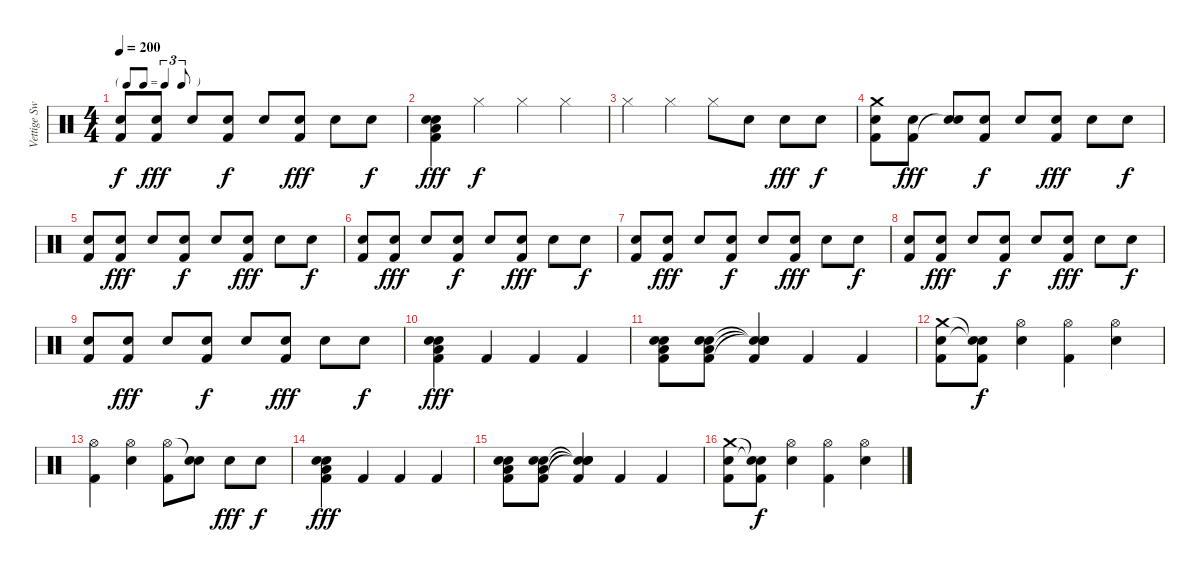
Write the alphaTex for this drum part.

\track ("Vettige Swa" "Vettige Sw") {instrument percussion}
\staff {score}
\articulation defaults
\ts (4 4)
\tf triplet8th
\tempo 200
\clef neutral
\ks c
("Electric Snare (hit)" "Kick (hit) 2").8{dy f} ("Electric Snare (hit)" "Kick (hit) 2").8{dy fff} "Electric Snare (hit)".8 ("Electric Snare (hit)" "Kick (hit) 2").8{dy f} "Electric Snare (hit)".8 ("Electric Snare (hit)" "Kick (hit) 2").8{dy fff} "Electric Snare (hit)".8 "Electric Snare (hit)".8{dy f} |
("Electric Snare (hit)" "Electric Snare (hit)" "Kick (hit) 2" "Low Floor Tom (hit)").4{dy fff} "Hi-Hat (closed)".4{dy f} "Hi-Hat (closed)".4 "Hi-Hat (closed)".4 |
"Hi-Hat (closed)".4 "Hi-Hat (closed)".4 "Hi-Hat (closed)".8 "Electric Snare (hit)".8 "Electric Snare (hit)".8{dy fff} "Electric Snare (hit)".8{dy f} |
("Electric Snare (hit)" "Kick (hit) 2" "Crash medium (hit)").8 ("Electric Snare (hit)" "Kick (hit) 2").8{dy fff} ("Electric Snare (hit)" "Snare (hit)"{t}).8 ("Electric Snare (hit)" "Kick (hit) 2").8{dy f} "Electric Snare (hit)".8 ("Electric Snare (hit)" "Kick (hit) 2").8{dy fff} "Electric Snare (hit)".8 "Electric Snare (hit)".8{dy f} |
("Electric Snare (hit)" "Kick (hit) 2").8 ("Electric Snare (hit)" "Kick (hit) 2").8{dy fff} "Electric Snare (hit)".8 ("Electric Snare (hit)" "Kick (hit) 2").8{dy f} "Electric Snare (hit)".8 ("Electric Snare (hit)" "Kick (hit) 2").8{dy fff} "Electric Snare (hit)".8 "Electric Snare (hit)".8{dy f} |
("Electric Snare (hit)" "Kick (hit) 2").8 ("Electric Snare (hit)" "Kick (hit) 2").8{dy fff} "Electric Snare (hit)".8 ("Electric Snare (hit)" "Kick (hit) 2").8{dy f} "Electric Snare (hit)".8 ("Electric Snare (hit)" "Kick (hit) 2").8{dy fff} "Electric Snare (hit)".8 "Electric Snare (hit)".8{dy f} |
("Electric Snare (hit)" "Kick (hit) 2").8 ("Electric Snare (hit)" "Kick (hit) 2").8{dy fff} "Electric Snare (hit)".8 ("Electric Snare (hit)" "Kick (hit) 2").8{dy f} "Electric Snare (hit)".8 ("Electric Snare (hit)" "Kick (hit) 2").8{dy fff} "Electric Snare (hit)".8 "Electric Snare (hit)".8{dy f} |
("Electric Snare (hit)" "Kick (hit) 2").8 ("Electric Snare (hit)" "Kick (hit) 2").8{dy fff} "Electric Snare (hit)".8 ("Electric Snare (hit)" "Kick (hit) 2").8{dy f} "Electric Snare (hit)".8 ("Electric Snare (hit)" "Kick (hit) 2").8{dy fff} "Electric Snare (hit)".8 "Electric Snare (hit)".8{dy f} |
("Electric Snare (hit)" "Kick (hit) 2").8 ("Electric Snare (hit)" "Kick (hit) 2").8{dy fff} "Electric Snare (hit)".8 ("Electric Snare (hit)" "Kick (hit) 2").8{dy f} "Electric Snare (hit)".8 ("Electric Snare (hit)" "Kick (hit) 2").8{dy fff} "Electric Snare (hit)".8 "Electric Snare (hit)".8{dy f} |
("Electric Snare (hit)" "Electric Snare (hit)" "Kick (hit) 2" "Low Floor Tom (hit)").4{dy fff} "Kick (hit) 2".4 "Kick (hit) 2".4 "Kick (hit) 2".4 |
("Electric Snare (hit)" "Electric Snare (hit)" "Kick (hit) 2" "Low Floor Tom (hit)").8 ("Electric Snare (hit)" "Electric Snare (hit)" "Kick (hit) 2" "Low Floor Tom (hit)").8 ("Kick (hit) 2" "Snare (hit)"{t} "Snare (hit)"{t} "Snare (hit)"{t}).4 "Kick (hit) 2".4 "Kick (hit) 2".4 |
("Electric Snare (hit)" "Kick (hit) 2" "Crash medium (hit)").8 ("Snare (hit)"{t} "Kick (hit) 2" "Snare (hit)"{t}).8{dy f} ("Hi-Hat (open)" "Electric Snare (hit)").4 ("Hi-Hat (open)" "Kick (hit) 2").4 ("Hi-Hat (open)" "Electric Snare (hit)").4 |
("Hi-Hat (open)" "Kick (hit) 2").4 ("Hi-Hat (open)" "Electric Snare (hit)").4 ("Hi-Hat (open)" "Kick (hit) 2").8 ("Snare (hit)"{t} "Electric Snare (hit)").8 "Electric Snare (hit)".8{dy fff} "Electric Snare (hit)".8{dy f} |
("Electric Snare (hit)" "Electric Snare (hit)" "Kick (hit) 2" "Low Floor Tom (hit)").4{dy fff} "Kick (hit) 2".4 "Kick (hit) 2".4 "Kick (hit) 2".4 |
("Electric Snare (hit)" "Electric Snare (hit)" "Kick (hit) 2" "Low Floor Tom (hit)").8 ("Electric Snare (hit)" "Electric Snare (hit)" "Kick (hit) 2" "Low Floor Tom (hit)").8 ("Kick (hit) 2" "Snare (hit)"{t} "Snare (hit)"{t} "Snare (hit)"{t}).4 "Kick (hit) 2".4 "Kick (hit) 2".4 |
("Electric Snare (hit)" "Kick (hit) 2" "Crash medium (hit)").8 ("Snare (hit)"{t} "Kick (hit) 2" "Snare (hit)"{t}).8{dy f} ("Hi-Hat (open)" "Electric Snare (hit)").4 ("Hi-Hat (open)" "Kick (hit) 2").4 ("Hi-Hat (open)" "Electric Snare (hit)").4
